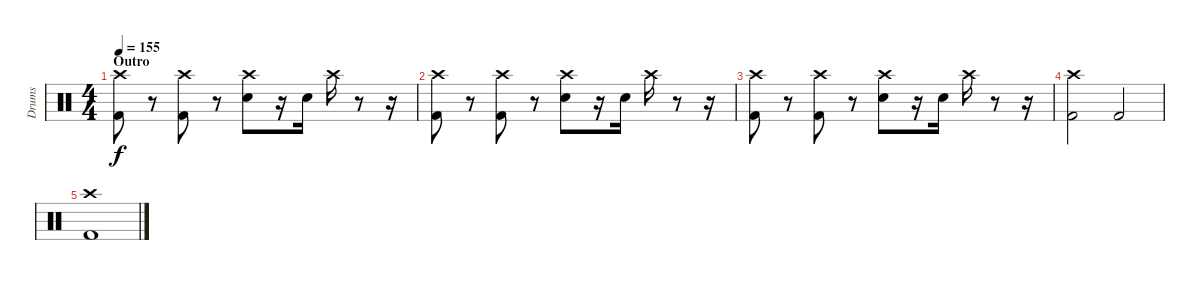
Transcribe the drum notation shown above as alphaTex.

\track ("Drums" "Drums") {instrument percussion}
\staff {score}
\articulation defaults
\ts (4 4)
\section ("" "Outro")
\tempo 155
\clef neutral
\ks c
("Crash high (hit)" "Kick (hit) 2").8{dy f} r.8 ("Crash high (hit)" "Kick (hit) 2").8 r.8 ("Crash high (hit)" "Electric Snare (hit)").8 r.16 "Electric Snare (hit)".16 "Crash high (hit)".16 r.8 r.16 |
("Crash high (hit)" "Kick (hit) 2").8 r.8 ("Crash high (hit)" "Kick (hit) 2").8 r.8 ("Crash high (hit)" "Electric Snare (hit)").8 r.16 "Electric Snare (hit)".16 "Crash high (hit)".16 r.8 r.16 |
("Crash high (hit)" "Kick (hit) 2").8 r.8 ("Crash high (hit)" "Kick (hit) 2").8 r.8 ("Crash high (hit)" "Electric Snare (hit)").8 r.16 "Electric Snare (hit)".16 "Crash high (hit)".16 r.8 r.16 |
("Crash high (hit)" "Kick (hit) 2").2 "Kick (hit) 2".2 |
("Crash high (hit)" "Kick (hit) 2").1
